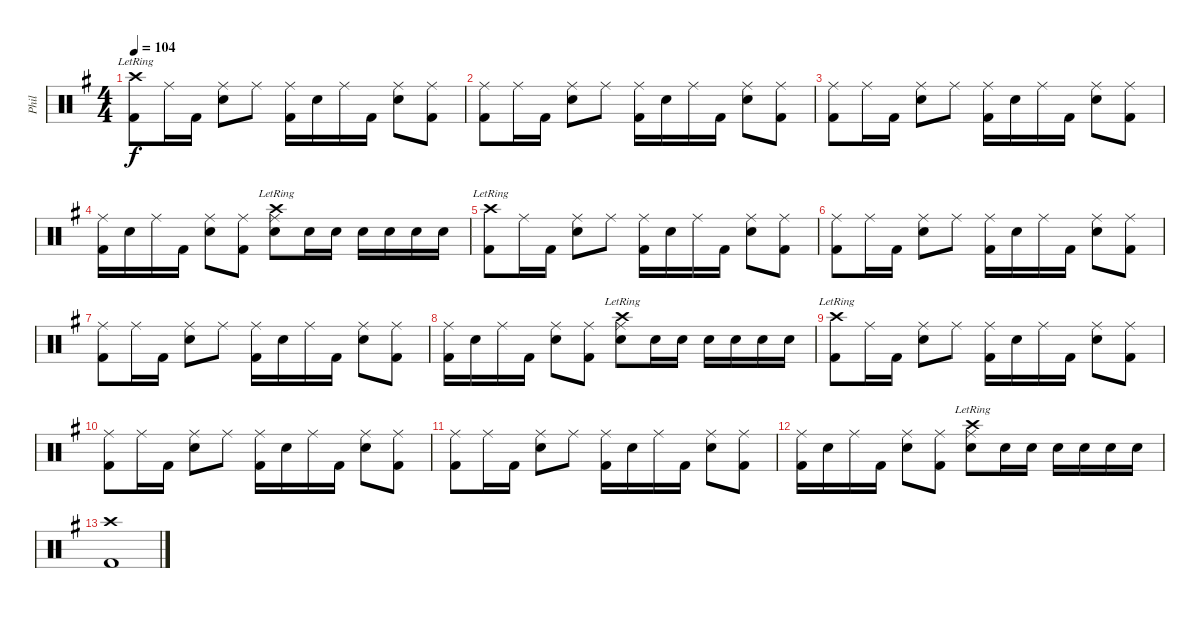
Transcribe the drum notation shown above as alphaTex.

\track ("Phil" "Phil") {instrument percussion}
\staff {score}
\articulation defaults
\ts (4 4)
\tempo 104
\clef neutral
\ks g
("Kick (hit) 2" "Crash high (hit)"{lr}).8{dy f} "Ride (middle)".16 "Kick (hit) 2".16 ("Snare (hit) 2" "Ride (middle)").8 "Ride (middle)".8 ("Kick (hit) 2" "Ride (middle)").16 "Snare (hit) 2".16 "Ride (middle)".16 "Kick (hit) 2".16 ("Snare (hit) 2" "Ride (middle)").8 ("Kick (hit) 2" "Ride (middle)").8 |
("Kick (hit) 2" "Ride (middle)").8 "Ride (middle)".16 "Kick (hit) 2".16 ("Snare (hit) 2" "Ride (middle)").8 "Ride (middle)".8 ("Kick (hit) 2" "Ride (middle)").16 "Snare (hit) 2".16 "Ride (middle)".16 "Kick (hit) 2".16 ("Snare (hit) 2" "Ride (middle)").8 ("Kick (hit) 2" "Ride (middle)").8 |
("Kick (hit) 2" "Ride (middle)").8 "Ride (middle)".16 "Kick (hit) 2".16 ("Snare (hit) 2" "Ride (middle)").8 "Ride (middle)".8 ("Kick (hit) 2" "Ride (middle)").16 "Snare (hit) 2".16 "Ride (middle)".16 "Kick (hit) 2".16 ("Snare (hit) 2" "Ride (middle)").8 ("Kick (hit) 2" "Ride (middle)").8 |
("Kick (hit) 2" "Ride (middle)").16 "Snare (hit) 2".16 "Ride (middle)".16 "Kick (hit) 2".16 ("Snare (hit) 2" "Ride (middle)").8 ("Kick (hit) 2" "Ride (middle)").8 ("Snare (hit) 2" "Ride (middle)" "Crash high (hit)"{lr}).8 "Snare (hit) 2".16 "Snare (hit) 2".16 "Snare (hit) 2".16 "Snare (hit) 2".16 "Snare (hit) 2".16 "Snare (hit) 2".16 |
("Kick (hit) 2" "Crash high (hit)"{lr}).8 "Ride (middle)".16 "Kick (hit) 2".16 ("Snare (hit) 2" "Ride (middle)").8 "Ride (middle)".8 ("Kick (hit) 2" "Ride (middle)").16 "Snare (hit) 2".16 "Ride (middle)".16 "Kick (hit) 2".16 ("Snare (hit) 2" "Ride (middle)").8 ("Kick (hit) 2" "Ride (middle)").8 |
("Kick (hit) 2" "Ride (middle)").8 "Ride (middle)".16 "Kick (hit) 2".16 ("Snare (hit) 2" "Ride (middle)").8 "Ride (middle)".8 ("Kick (hit) 2" "Ride (middle)").16 "Snare (hit) 2".16 "Ride (middle)".16 "Kick (hit) 2".16 ("Snare (hit) 2" "Ride (middle)").8 ("Kick (hit) 2" "Ride (middle)").8 |
("Kick (hit) 2" "Ride (middle)").8 "Ride (middle)".16 "Kick (hit) 2".16 ("Snare (hit) 2" "Ride (middle)").8 "Ride (middle)".8 ("Kick (hit) 2" "Ride (middle)").16 "Snare (hit) 2".16 "Ride (middle)".16 "Kick (hit) 2".16 ("Snare (hit) 2" "Ride (middle)").8 ("Kick (hit) 2" "Ride (middle)").8 |
("Kick (hit) 2" "Ride (middle)").16 "Snare (hit) 2".16 "Ride (middle)".16 "Kick (hit) 2".16 ("Snare (hit) 2" "Ride (middle)").8 ("Kick (hit) 2" "Ride (middle)").8 ("Snare (hit) 2" "Ride (middle)" "Crash high (hit)"{lr}).8 "Snare (hit) 2".16 "Snare (hit) 2".16 "Snare (hit) 2".16 "Snare (hit) 2".16 "Snare (hit) 2".16 "Snare (hit) 2".16 |
("Kick (hit) 2" "Crash high (hit)"{lr}).8 "Ride (middle)".16 "Kick (hit) 2".16 ("Snare (hit) 2" "Ride (middle)").8 "Ride (middle)".8 ("Kick (hit) 2" "Ride (middle)").16 "Snare (hit) 2".16 "Ride (middle)".16 "Kick (hit) 2".16 ("Snare (hit) 2" "Ride (middle)").8 ("Kick (hit) 2" "Ride (middle)").8 |
("Kick (hit) 2" "Ride (middle)").8 "Ride (middle)".16 "Kick (hit) 2".16 ("Snare (hit) 2" "Ride (middle)").8 "Ride (middle)".8 ("Kick (hit) 2" "Ride (middle)").16 "Snare (hit) 2".16 "Ride (middle)".16 "Kick (hit) 2".16 ("Snare (hit) 2" "Ride (middle)").8 ("Kick (hit) 2" "Ride (middle)").8 |
("Kick (hit) 2" "Ride (middle)").8 "Ride (middle)".16 "Kick (hit) 2".16 ("Snare (hit) 2" "Ride (middle)").8 "Ride (middle)".8 ("Kick (hit) 2" "Ride (middle)").16 "Snare (hit) 2".16 "Ride (middle)".16 "Kick (hit) 2".16 ("Snare (hit) 2" "Ride (middle)").8 ("Kick (hit) 2" "Ride (middle)").8 |
("Kick (hit) 2" "Ride (middle)").16 "Snare (hit) 2".16 "Ride (middle)".16 "Kick (hit) 2".16 ("Snare (hit) 2" "Ride (middle)").8 ("Kick (hit) 2" "Ride (middle)").8 ("Snare (hit) 2" "Ride (middle)" "Crash high (hit)"{lr}).8 "Snare (hit) 2".16 "Snare (hit) 2".16 "Snare (hit) 2".16 "Snare (hit) 2".16 "Snare (hit) 2".16 "Snare (hit) 2".16 |
("Kick (hit) 2" "Crash high (hit)").1
